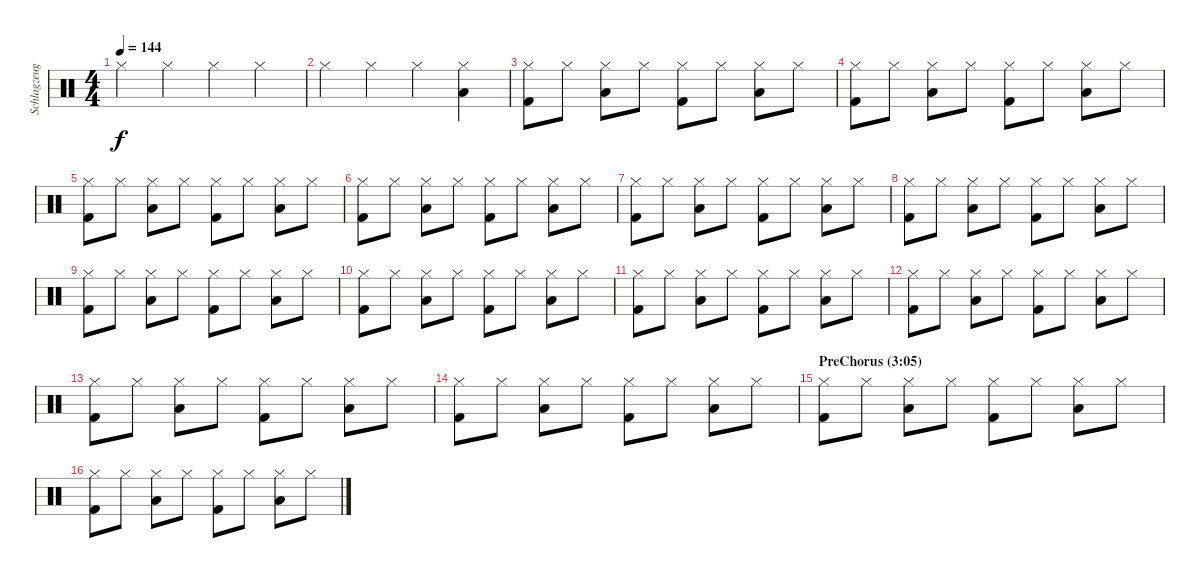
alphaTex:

\track ("Schlagzeug" "Schlagzeug") {instrument percussion}
\staff {score}
\articulation defaults
\ts (4 4)
\tempo 144
\clef neutral
\ks c "Hi-Hat (closed)".4{dy f} "Hi-Hat (closed)".4 "Hi-Hat (closed)".4 "Hi-Hat (closed)".4
|
"Hi-Hat (closed)".4 "Hi-Hat (closed)".4 "Hi-Hat (closed)".4 ("Hi-Hat (closed)" "Low Tom (hit)").4 |
("Hi-Hat (closed)" "Kick (hit) 2").8 "Hi-Hat (closed)".8 ("Hi-Hat (closed)" "Low Tom (hit)").8 "Hi-Hat (closed)".8 ("Hi-Hat (closed)" "Kick (hit) 2").8 "Hi-Hat (closed)".8 ("Hi-Hat (closed)" "Low Tom (hit)").8 "Hi-Hat (closed)".8 |
("Hi-Hat (closed)" "Kick (hit) 2").8 "Hi-Hat (closed)".8 ("Hi-Hat (closed)" "Low Tom (hit)").8 "Hi-Hat (closed)".8 ("Hi-Hat (closed)" "Kick (hit) 2").8 "Hi-Hat (closed)".8 ("Hi-Hat (closed)" "Low Tom (hit)").8 "Hi-Hat (closed)".8 |
("Hi-Hat (closed)" "Kick (hit) 2").8 "Hi-Hat (closed)".8 ("Hi-Hat (closed)" "Low Tom (hit)").8 "Hi-Hat (closed)".8 ("Hi-Hat (closed)" "Kick (hit) 2").8 "Hi-Hat (closed)".8 ("Hi-Hat (closed)" "Low Tom (hit)").8 "Hi-Hat (closed)".8 |
("Hi-Hat (closed)" "Kick (hit) 2").8 "Hi-Hat (closed)".8 ("Hi-Hat (closed)" "Low Tom (hit)").8 "Hi-Hat (closed)".8 ("Hi-Hat (closed)" "Kick (hit) 2").8 "Hi-Hat (closed)".8 ("Hi-Hat (closed)" "Low Tom (hit)").8 "Hi-Hat (closed)".8 |
("Hi-Hat (closed)" "Kick (hit) 2").8 "Hi-Hat (closed)".8 ("Hi-Hat (closed)" "Low Tom (hit)").8 "Hi-Hat (closed)".8 ("Hi-Hat (closed)" "Kick (hit) 2").8 "Hi-Hat (closed)".8 ("Hi-Hat (closed)" "Low Tom (hit)").8 "Hi-Hat (closed)".8 |
("Hi-Hat (closed)" "Kick (hit) 2").8 "Hi-Hat (closed)".8 ("Hi-Hat (closed)" "Low Tom (hit)").8 "Hi-Hat (closed)".8 ("Hi-Hat (closed)" "Kick (hit) 2").8 "Hi-Hat (closed)".8 ("Hi-Hat (closed)" "Low Tom (hit)").8 "Hi-Hat (closed)".8 |
("Hi-Hat (closed)" "Kick (hit) 2").8 "Hi-Hat (closed)".8 ("Hi-Hat (closed)" "Low Tom (hit)").8 "Hi-Hat (closed)".8 ("Hi-Hat (closed)" "Kick (hit) 2").8 "Hi-Hat (closed)".8 ("Hi-Hat (closed)" "Low Tom (hit)").8 "Hi-Hat (closed)".8 |
("Hi-Hat (closed)" "Kick (hit) 2").8 "Hi-Hat (closed)".8 ("Hi-Hat (closed)" "Low Tom (hit)").8 "Hi-Hat (closed)".8 ("Hi-Hat (closed)" "Kick (hit) 2").8 "Hi-Hat (closed)".8 ("Hi-Hat (closed)" "Low Tom (hit)").8 "Hi-Hat (closed)".8 |
("Hi-Hat (closed)" "Kick (hit) 2").8 "Hi-Hat (closed)".8 ("Hi-Hat (closed)" "Low Tom (hit)").8 "Hi-Hat (closed)".8 ("Hi-Hat (closed)" "Kick (hit) 2").8 "Hi-Hat (closed)".8 ("Hi-Hat (closed)" "Low Tom (hit)").8 "Hi-Hat (closed)".8 |
("Hi-Hat (closed)" "Kick (hit) 2").8 "Hi-Hat (closed)".8 ("Hi-Hat (closed)" "Low Tom (hit)").8 "Hi-Hat (closed)".8 ("Hi-Hat (closed)" "Kick (hit) 2").8 "Hi-Hat (closed)".8 ("Hi-Hat (closed)" "Low Tom (hit)").8 "Hi-Hat (closed)".8 |
("Hi-Hat (closed)" "Kick (hit) 2").8 "Hi-Hat (closed)".8 ("Hi-Hat (closed)" "Low Tom (hit)").8 "Hi-Hat (closed)".8 ("Hi-Hat (closed)" "Kick (hit) 2").8 "Hi-Hat (closed)".8 ("Hi-Hat (closed)" "Low Tom (hit)").8 "Hi-Hat (closed)".8 |
("Hi-Hat (closed)" "Kick (hit) 2").8 "Hi-Hat (closed)".8 ("Hi-Hat (closed)" "Low Tom (hit)").8 "Hi-Hat (closed)".8 ("Hi-Hat (closed)" "Kick (hit) 2").8 "Hi-Hat (closed)".8 ("Hi-Hat (closed)" "Low Tom (hit)").8 "Hi-Hat (closed)".8 |
\section ("" "PreChorus (3:05)")
("Hi-Hat (closed)" "Kick (hit) 2").8 "Hi-Hat (closed)".8 ("Hi-Hat (closed)" "Low Tom (hit)").8 "Hi-Hat (closed)".8 ("Hi-Hat (closed)" "Kick (hit) 2").8 "Hi-Hat (closed)".8 ("Hi-Hat (closed)" "Low Tom (hit)").8 "Hi-Hat (closed)".8 |
("Hi-Hat (closed)" "Kick (hit) 2").8 "Hi-Hat (closed)".8 ("Hi-Hat (closed)" "Low Tom (hit)").8 "Hi-Hat (closed)".8 ("Hi-Hat (closed)" "Kick (hit) 2").8 "Hi-Hat (closed)".8 ("Hi-Hat (closed)" "Low Tom (hit)").8 "Hi-Hat (closed)".8
